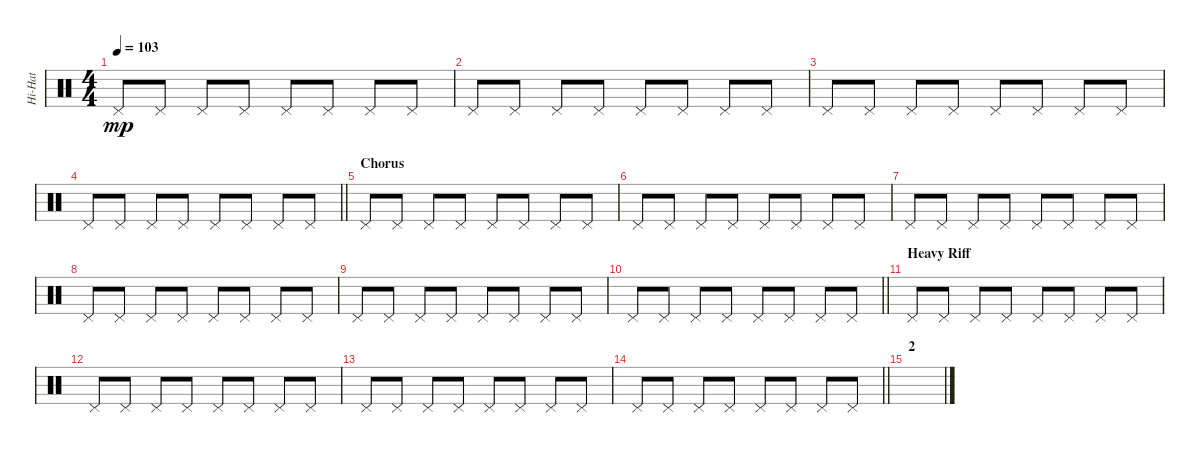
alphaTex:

\track ("Hi-Hat" "Hi-Hat") {instrument percussion}
\staff {score}
\articulation defaults
\ts (4 4)
\tempo 103
\clef neutral
\ks c "Pedal Hi-Hat (hit)".8{dy mp} "Pedal Hi-Hat (hit)".8 "Pedal Hi-Hat (hit)".8 "Pedal Hi-Hat (hit)".8 "Pedal Hi-Hat (hit)".8 "Pedal Hi-Hat (hit)".8 "Pedal Hi-Hat (hit)".8 "Pedal Hi-Hat (hit)".8
|
"Pedal Hi-Hat (hit)".8 "Pedal Hi-Hat (hit)".8 "Pedal Hi-Hat (hit)".8 "Pedal Hi-Hat (hit)".8 "Pedal Hi-Hat (hit)".8 "Pedal Hi-Hat (hit)".8 "Pedal Hi-Hat (hit)".8 "Pedal Hi-Hat (hit)".8 |
"Pedal Hi-Hat (hit)".8 "Pedal Hi-Hat (hit)".8 "Pedal Hi-Hat (hit)".8 "Pedal Hi-Hat (hit)".8 "Pedal Hi-Hat (hit)".8 "Pedal Hi-Hat (hit)".8 "Pedal Hi-Hat (hit)".8 "Pedal Hi-Hat (hit)".8 |
\barLineRight lightlight "Pedal Hi-Hat (hit)".8 "Pedal Hi-Hat (hit)".8 "Pedal Hi-Hat (hit)".8 "Pedal Hi-Hat (hit)".8 "Pedal Hi-Hat (hit)".8 "Pedal Hi-Hat (hit)".8 "Pedal Hi-Hat (hit)".8 "Pedal Hi-Hat (hit)".8
|
\section ("" "Chorus")
"Pedal Hi-Hat (hit)".8 "Pedal Hi-Hat (hit)".8 "Pedal Hi-Hat (hit)".8 "Pedal Hi-Hat (hit)".8 "Pedal Hi-Hat (hit)".8 "Pedal Hi-Hat (hit)".8 "Pedal Hi-Hat (hit)".8 "Pedal Hi-Hat (hit)".8 |
"Pedal Hi-Hat (hit)".8 "Pedal Hi-Hat (hit)".8 "Pedal Hi-Hat (hit)".8 "Pedal Hi-Hat (hit)".8 "Pedal Hi-Hat (hit)".8 "Pedal Hi-Hat (hit)".8 "Pedal Hi-Hat (hit)".8 "Pedal Hi-Hat (hit)".8 |
"Pedal Hi-Hat (hit)".8 "Pedal Hi-Hat (hit)".8 "Pedal Hi-Hat (hit)".8 "Pedal Hi-Hat (hit)".8 "Pedal Hi-Hat (hit)".8 "Pedal Hi-Hat (hit)".8 "Pedal Hi-Hat (hit)".8 "Pedal Hi-Hat (hit)".8 |
"Pedal Hi-Hat (hit)".8 "Pedal Hi-Hat (hit)".8 "Pedal Hi-Hat (hit)".8 "Pedal Hi-Hat (hit)".8 "Pedal Hi-Hat (hit)".8 "Pedal Hi-Hat (hit)".8 "Pedal Hi-Hat (hit)".8 "Pedal Hi-Hat (hit)".8 |
"Pedal Hi-Hat (hit)".8 "Pedal Hi-Hat (hit)".8 "Pedal Hi-Hat (hit)".8 "Pedal Hi-Hat (hit)".8 "Pedal Hi-Hat (hit)".8 "Pedal Hi-Hat (hit)".8 "Pedal Hi-Hat (hit)".8 "Pedal Hi-Hat (hit)".8 |
\barLineRight lightlight "Pedal Hi-Hat (hit)".8 "Pedal Hi-Hat (hit)".8 "Pedal Hi-Hat (hit)".8 "Pedal Hi-Hat (hit)".8 "Pedal Hi-Hat (hit)".8 "Pedal Hi-Hat (hit)".8 "Pedal Hi-Hat (hit)".8 "Pedal Hi-Hat (hit)".8
|
\section ("" "Heavy Riff")
"Pedal Hi-Hat (hit)".8 "Pedal Hi-Hat (hit)".8 "Pedal Hi-Hat (hit)".8 "Pedal Hi-Hat (hit)".8 "Pedal Hi-Hat (hit)".8 "Pedal Hi-Hat (hit)".8 "Pedal Hi-Hat (hit)".8 "Pedal Hi-Hat (hit)".8 |
"Pedal Hi-Hat (hit)".8 "Pedal Hi-Hat (hit)".8 "Pedal Hi-Hat (hit)".8 "Pedal Hi-Hat (hit)".8 "Pedal Hi-Hat (hit)".8 "Pedal Hi-Hat (hit)".8 "Pedal Hi-Hat (hit)".8 "Pedal Hi-Hat (hit)".8 |
"Pedal Hi-Hat (hit)".8 "Pedal Hi-Hat (hit)".8 "Pedal Hi-Hat (hit)".8 "Pedal Hi-Hat (hit)".8 "Pedal Hi-Hat (hit)".8 "Pedal Hi-Hat (hit)".8 "Pedal Hi-Hat (hit)".8 "Pedal Hi-Hat (hit)".8 |
\barLineRight lightlight "Pedal Hi-Hat (hit)".8 "Pedal Hi-Hat (hit)".8 "Pedal Hi-Hat (hit)".8 "Pedal Hi-Hat (hit)".8 "Pedal Hi-Hat (hit)".8 "Pedal Hi-Hat (hit)".8 "Pedal Hi-Hat (hit)".8 "Pedal Hi-Hat (hit)".8
|
\section ("" "2")
